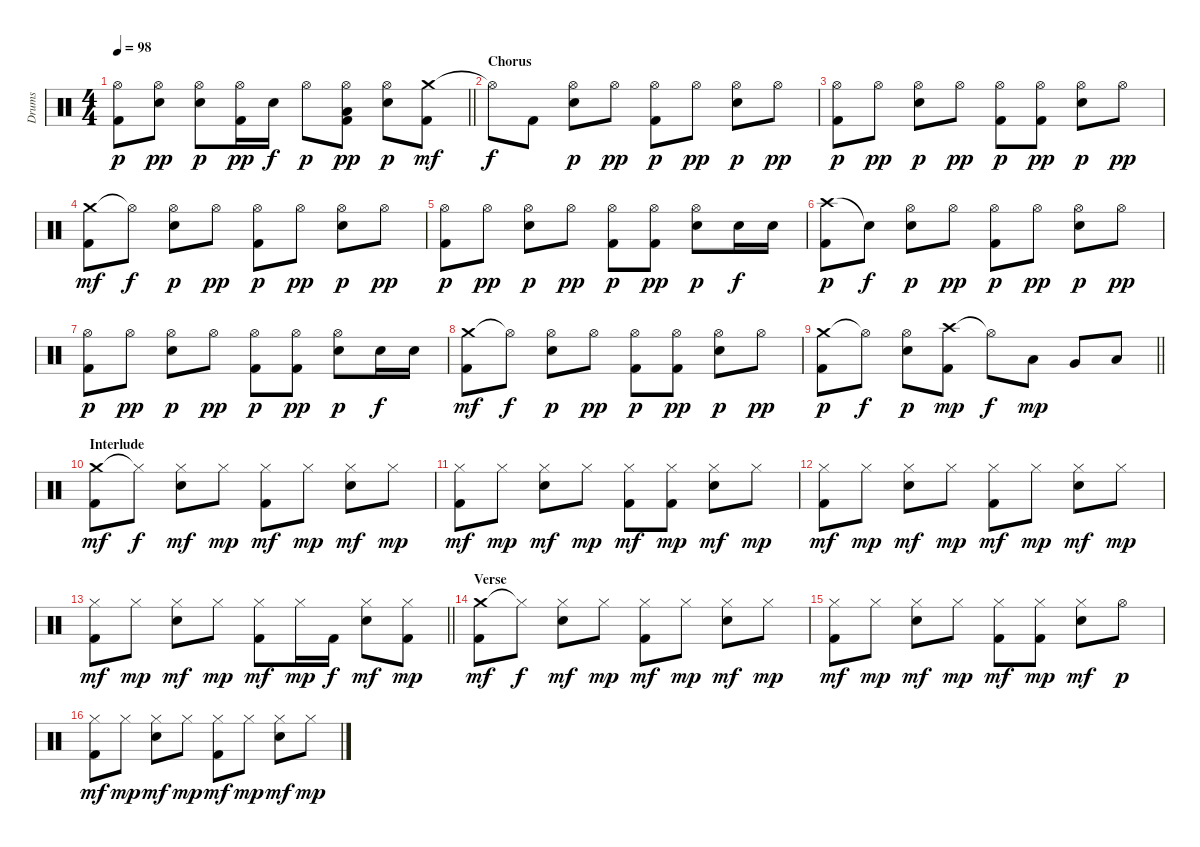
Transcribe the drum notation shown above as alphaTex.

\track ("Drums" "Drums") {instrument percussion}
\staff {score}
\articulation defaults
\ts (4 4)
\tempo 98
\clef neutral
\barLineRight lightlight
\ks c
("Hi-Hat (open)" "Kick (hit) 2").8{dy p} ("Hi-Hat (open)" "Electric Snare (hit)").8{dy pp} ("Hi-Hat (open)" "Electric Snare (hit)").8{dy p} ("Hi-Hat (open)" "Kick (hit) 2").16{dy pp} "Electric Snare (hit)".16{dy f} "Hi-Hat (open)".8{dy p} ("Hi-Hat (open)" "Low Tom (hit)" "Kick (hit) 2").8{dy pp} ("Hi-Hat (open)" "Electric Snare (hit)").8{dy p} ("Crash medium (hit)" "Kick (hit) 2").8{dy mf} |
\section ("" "Chorus")
"Hi-Hat (open)"{t}.8{dy f} "Kick (hit) 2".8 ("Hi-Hat (open)" "Electric Snare (hit)").8{dy p} "Hi-Hat (open)".8{dy pp} ("Hi-Hat (open)" "Kick (hit) 2").8{dy p} "Hi-Hat (open)".8{dy pp} ("Hi-Hat (open)" "Electric Snare (hit)").8{dy p} "Hi-Hat (open)".8{dy pp} |
("Hi-Hat (open)" "Kick (hit) 2").8{dy p} "Hi-Hat (open)".8{dy pp} ("Hi-Hat (open)" "Electric Snare (hit)").8{dy p} "Hi-Hat (open)".8{dy pp} ("Hi-Hat (open)" "Kick (hit) 2").8{dy p} ("Hi-Hat (open)" "Kick (hit) 2").8{dy pp} ("Hi-Hat (open)" "Electric Snare (hit)").8{dy p} "Hi-Hat (open)".8{dy pp} |
("Crash medium (hit)" "Kick (hit) 2").8{dy mf} "Hi-Hat (open)"{t}.8{dy f} ("Hi-Hat (open)" "Electric Snare (hit)").8{dy p} "Hi-Hat (open)".8{dy pp} ("Hi-Hat (open)" "Kick (hit) 2").8{dy p} "Hi-Hat (open)".8{dy pp} ("Hi-Hat (open)" "Electric Snare (hit)").8{dy p} "Hi-Hat (open)".8{dy pp} |
("Hi-Hat (open)" "Kick (hit) 2").8{dy p} "Hi-Hat (open)".8{dy pp} ("Hi-Hat (open)" "Electric Snare (hit)").8{dy p} "Hi-Hat (open)".8{dy pp} ("Hi-Hat (open)" "Kick (hit) 2").8{dy p} ("Hi-Hat (open)" "Kick (hit) 2").8{dy pp} ("Hi-Hat (open)" "Electric Snare (hit)").8{dy p} "Electric Snare (hit)".16{dy f} "Electric Snare (hit)".16 |
("Crash high (hit)" "Kick (hit) 2").8{dy p} "Snare (hit)"{t}.8{dy f} ("Hi-Hat (open)" "Electric Snare (hit)").8{dy p} "Hi-Hat (open)".8{dy pp} ("Hi-Hat (open)" "Kick (hit) 2").8{dy p} "Hi-Hat (open)".8{dy pp} ("Hi-Hat (open)" "Electric Snare (hit)").8{dy p} "Hi-Hat (open)".8{dy pp} |
("Hi-Hat (open)" "Kick (hit) 2").8{dy p} "Hi-Hat (open)".8{dy pp} ("Hi-Hat (open)" "Electric Snare (hit)").8{dy p} "Hi-Hat (open)".8{dy pp} ("Hi-Hat (open)" "Kick (hit) 2").8{dy p} ("Hi-Hat (open)" "Kick (hit) 2").8{dy pp} ("Hi-Hat (open)" "Electric Snare (hit)").8{dy p} "Electric Snare (hit)".16{dy f} "Electric Snare (hit)".16 |
("Crash medium (hit)" "Kick (hit) 2").8{dy mf} "Hi-Hat (open)"{t}.8{dy f} ("Hi-Hat (open)" "Electric Snare (hit)").8{dy p} "Hi-Hat (open)".8{dy pp} ("Hi-Hat (open)" "Kick (hit) 2").8{dy p} ("Hi-Hat (open)" "Kick (hit) 2").8{dy pp} ("Hi-Hat (open)" "Electric Snare (hit)").8{dy p} "Hi-Hat (open)".8{dy pp} |
\barLineRight lightlight
("Crash medium (hit)" "Kick (hit) 2").8{dy p} "Hi-Hat (open)"{t}.8{dy f} ("Hi-Hat (open)" "Electric Snare (hit)").8{dy p} ("Crash high (hit)" "Kick (hit) 2").8{dy mp} "Hi-Hat (open)"{t}.8{dy f} "Low Tom (hit)".8{dy mp} "Very Low Tom (hit)".8 "Low Floor Tom (hit)".8 |
\section ("" "Interlude")
("Crash medium (hit)" "Kick (hit) 2").8{dy mf} "Hi-Hat (closed)"{t}.8{dy f} ("Hi-Hat (closed)" "Electric Snare (hit)").8{dy mf} "Hi-Hat (closed)".8{dy mp} ("Hi-Hat (closed)" "Kick (hit) 2").8{dy mf} "Hi-Hat (closed)".8{dy mp} ("Hi-Hat (closed)" "Electric Snare (hit)").8{dy mf} "Hi-Hat (closed)".8{dy mp} |
("Hi-Hat (closed)" "Kick (hit) 2").8{dy mf} "Hi-Hat (closed)".8{dy mp} ("Hi-Hat (closed)" "Electric Snare (hit)").8{dy mf} "Hi-Hat (closed)".8{dy mp} ("Hi-Hat (closed)" "Kick (hit) 2").8{dy mf} ("Hi-Hat (closed)" "Kick (hit) 2").8{dy mp} ("Hi-Hat (closed)" "Electric Snare (hit)").8{dy mf} "Hi-Hat (closed)".8{dy mp} |
("Hi-Hat (closed)" "Kick (hit) 2").8{dy mf} "Hi-Hat (closed)".8{dy mp} ("Hi-Hat (closed)" "Electric Snare (hit)").8{dy mf} "Hi-Hat (closed)".8{dy mp} ("Hi-Hat (closed)" "Kick (hit) 2").8{dy mf} "Hi-Hat (closed)".8{dy mp} ("Hi-Hat (closed)" "Electric Snare (hit)").8{dy mf} "Hi-Hat (closed)".8{dy mp} |
\barLineRight lightlight
("Hi-Hat (closed)" "Kick (hit) 2").8{dy mf} "Hi-Hat (closed)".8{dy mp} ("Hi-Hat (closed)" "Electric Snare (hit)").8{dy mf} "Hi-Hat (closed)".8{dy mp} ("Hi-Hat (closed)" "Kick (hit) 2").8{dy mf} "Hi-Hat (closed)".16{dy mp} "Kick (hit) 2".16{dy f} ("Hi-Hat (closed)" "Electric Snare (hit)").8{dy mf} ("Hi-Hat (closed)" "Kick (hit) 2").8{dy mp} |
\section ("" "Verse")
("Crash medium (hit)" "Kick (hit) 2").8{dy mf} "Hi-Hat (closed)"{t}.8{dy f} ("Hi-Hat (closed)" "Electric Snare (hit)").8{dy mf} "Hi-Hat (closed)".8{dy mp} ("Hi-Hat (closed)" "Kick (hit) 2").8{dy mf} "Hi-Hat (closed)".8{dy mp} ("Hi-Hat (closed)" "Electric Snare (hit)").8{dy mf} "Hi-Hat (closed)".8{dy mp} |
("Hi-Hat (closed)" "Kick (hit) 2").8{dy mf} "Hi-Hat (closed)".8{dy mp} ("Hi-Hat (closed)" "Electric Snare (hit)").8{dy mf} "Hi-Hat (closed)".8{dy mp} ("Hi-Hat (closed)" "Kick (hit) 2").8{dy mf} ("Hi-Hat (closed)" "Kick (hit) 2").8{dy mp} ("Hi-Hat (closed)" "Electric Snare (hit)").8{dy mf} "Hi-Hat (open)".8{dy p} |
("Hi-Hat (closed)" "Kick (hit) 2").8{dy mf} "Hi-Hat (closed)".8{dy mp} ("Hi-Hat (closed)" "Electric Snare (hit)").8{dy mf} "Hi-Hat (closed)".8{dy mp} ("Hi-Hat (closed)" "Kick (hit) 2").8{dy mf} "Hi-Hat (closed)".8{dy mp} ("Hi-Hat (closed)" "Electric Snare (hit)").8{dy mf} "Hi-Hat (closed)".8{dy mp}
